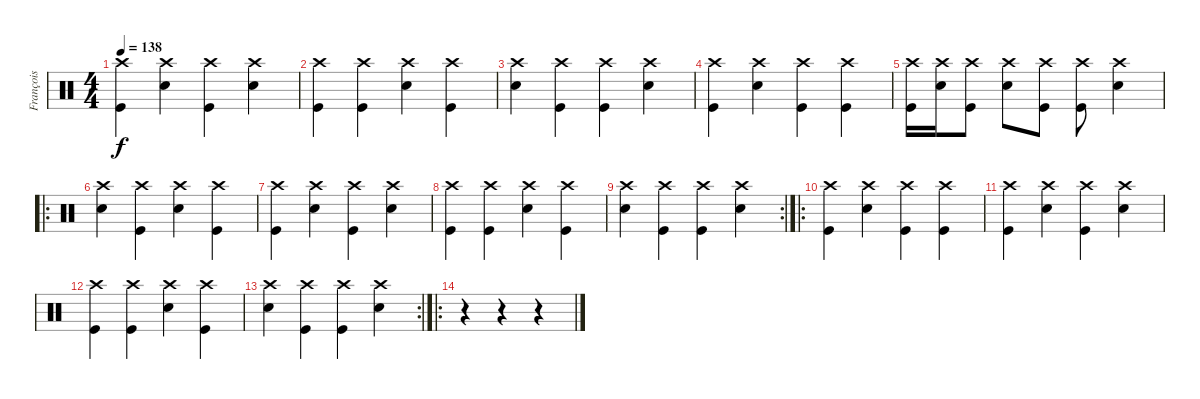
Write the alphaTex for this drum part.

\track ("François" "François") {instrument percussion}
\staff {score}
\articulation defaults
\ts (4 4)
\tempo 138
\clef neutral
\ks c
("Crash high (hit)" "Kick (hit)").4{dy f} ("Crash high (hit)" "Electric Snare (hit)").4 ("Crash high (hit)" "Kick (hit)").4 ("Crash high (hit)" "Electric Snare (hit)").4 |
("Crash high (hit)" "Kick (hit)").4 ("Crash high (hit)" "Kick (hit)").4 ("Crash high (hit)" "Electric Snare (hit)").4 ("Crash high (hit)" "Kick (hit)").4 |
("Crash high (hit)" "Electric Snare (hit)").4 ("Crash high (hit)" "Kick (hit)").4 ("Crash high (hit)" "Kick (hit)").4 ("Crash high (hit)" "Electric Snare (hit)").4 |
("Crash high (hit)" "Kick (hit)").4 ("Crash high (hit)" "Electric Snare (hit)").4 ("Crash high (hit)" "Kick (hit)").4 ("Crash high (hit)" "Kick (hit)").4 |
("Crash high (hit)" "Kick (hit)").16 ("Crash high (hit)" "Electric Snare (hit)").16 ("Crash high (hit)" "Kick (hit)").8 ("Crash high (hit)" "Electric Snare (hit)").8 ("Crash high (hit)" "Kick (hit)").8 ("Crash high (hit)" "Kick (hit)").8 ("Crash high (hit)" "Electric Snare (hit)").4 |
\ro
("Crash high (hit)" "Electric Snare (hit)").4 ("Crash high (hit)" "Kick (hit)").4 ("Crash high (hit)" "Electric Snare (hit)").4 ("Crash high (hit)" "Kick (hit)").4 |
("Crash high (hit)" "Kick (hit)").4 ("Crash high (hit)" "Electric Snare (hit)").4 ("Crash high (hit)" "Kick (hit)").4 ("Crash high (hit)" "Electric Snare (hit)").4 |
("Crash high (hit)" "Kick (hit)").4 ("Crash high (hit)" "Kick (hit)").4 ("Crash high (hit)" "Electric Snare (hit)").4 ("Crash high (hit)" "Kick (hit)").4 |
\rc 2
("Crash high (hit)" "Electric Snare (hit)").4 ("Crash high (hit)" "Kick (hit)").4 ("Crash high (hit)" "Kick (hit)").4 ("Crash high (hit)" "Electric Snare (hit)").4 |
\ro
("Crash high (hit)" "Kick (hit)").4 ("Crash high (hit)" "Electric Snare (hit)").4 ("Crash high (hit)" "Kick (hit)").4 ("Crash high (hit)" "Kick (hit)").4 |
("Crash high (hit)" "Kick (hit)").4 ("Crash high (hit)" "Electric Snare (hit)").4 ("Crash high (hit)" "Kick (hit)").4 ("Crash high (hit)" "Electric Snare (hit)").4 |
("Crash high (hit)" "Kick (hit)").4 ("Crash high (hit)" "Kick (hit)").4 ("Crash high (hit)" "Electric Snare (hit)").4 ("Crash high (hit)" "Kick (hit)").4 |
\rc 2
("Crash high (hit)" "Electric Snare (hit)").4 ("Crash high (hit)" "Kick (hit)").4 ("Crash high (hit)" "Kick (hit)").4 ("Crash high (hit)" "Electric Snare (hit)").4 |
\ro
r.4 r.4 r.4
